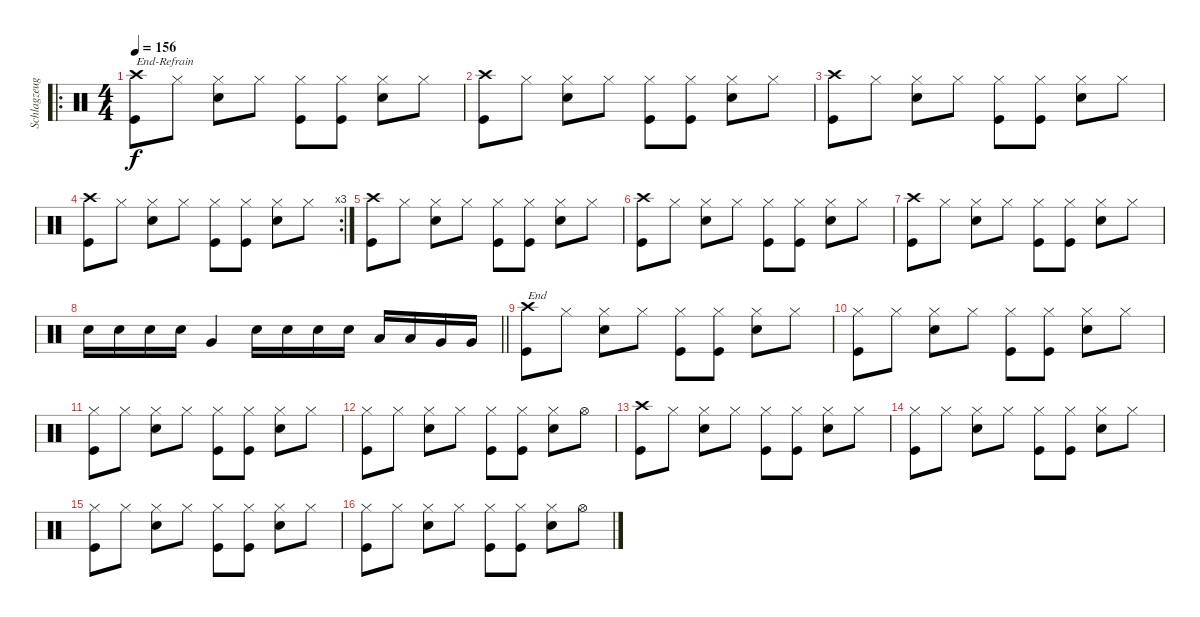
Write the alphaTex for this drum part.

\track ("Schlagzeug" "Schlagzeug") {instrument percussion}
\staff {score}
\articulation defaults
\ro
\ts (4 4)
\tempo 156
\clef neutral
\ks c
("Crash high (hit)" "Kick (hit)").8{txt "End-Refrain" dy f} "Hi-Hat (closed)".8 ("Hi-Hat (closed)" "Electric Snare (hit)").8 "Hi-Hat (closed)".8 ("Hi-Hat (closed)" "Kick (hit)").8 ("Hi-Hat (closed)" "Kick (hit)").8 ("Hi-Hat (closed)" "Electric Snare (hit)").8 "Hi-Hat (closed)".8 |
("Crash high (hit)" "Kick (hit)").8 "Hi-Hat (closed)".8 ("Hi-Hat (closed)" "Electric Snare (hit)").8 "Hi-Hat (closed)".8 ("Hi-Hat (closed)" "Kick (hit)").8 ("Hi-Hat (closed)" "Kick (hit)").8 ("Hi-Hat (closed)" "Electric Snare (hit)").8 "Hi-Hat (closed)".8 |
("Crash high (hit)" "Kick (hit)").8 "Hi-Hat (closed)".8 ("Hi-Hat (closed)" "Electric Snare (hit)").8 "Hi-Hat (closed)".8 ("Hi-Hat (closed)" "Kick (hit)").8 ("Hi-Hat (closed)" "Kick (hit)").8 ("Hi-Hat (closed)" "Electric Snare (hit)").8 "Hi-Hat (closed)".8 |
\rc 3
("Crash high (hit)" "Kick (hit)").8 "Hi-Hat (closed)".8 ("Hi-Hat (closed)" "Electric Snare (hit)").8 "Hi-Hat (closed)".8 ("Hi-Hat (closed)" "Kick (hit)").8 ("Hi-Hat (closed)" "Kick (hit)").8 ("Hi-Hat (closed)" "Electric Snare (hit)").8 "Hi-Hat (closed)".8 |
("Crash high (hit)" "Kick (hit)").8 "Hi-Hat (closed)".8 ("Hi-Hat (closed)" "Electric Snare (hit)").8 "Hi-Hat (closed)".8 ("Hi-Hat (closed)" "Kick (hit)").8 ("Hi-Hat (closed)" "Kick (hit)").8 ("Hi-Hat (closed)" "Electric Snare (hit)").8 "Hi-Hat (closed)".8 |
("Crash high (hit)" "Kick (hit)").8 "Hi-Hat (closed)".8 ("Hi-Hat (closed)" "Electric Snare (hit)").8 "Hi-Hat (closed)".8 ("Hi-Hat (closed)" "Kick (hit)").8 ("Hi-Hat (closed)" "Kick (hit)").8 ("Hi-Hat (closed)" "Electric Snare (hit)").8 "Hi-Hat (closed)".8 |
("Crash high (hit)" "Kick (hit)").8 "Hi-Hat (closed)".8 ("Hi-Hat (closed)" "Electric Snare (hit)").8 "Hi-Hat (closed)".8 ("Hi-Hat (closed)" "Kick (hit)").8 ("Hi-Hat (closed)" "Kick (hit)").8 ("Hi-Hat (closed)" "Electric Snare (hit)").8 "Hi-Hat (closed)".8 |
\barLineRight lightlight "Electric Snare (hit)".16 "Electric Snare (hit)".16 "Electric Snare (hit)".16 "Electric Snare (hit)".16 "Very Low Tom (hit)".4 "Electric Snare (hit)".16 "Electric Snare (hit)".16 "Electric Snare (hit)".16 "Electric Snare (hit)".16 "Low Tom (hit)".16 "Low Tom (hit)".16 "Very Low Tom (hit)".16 "Very Low Tom (hit)".16
|
("Crash high (hit)" "Kick (hit)").8{txt "End"} "Hi-Hat (closed)".8 ("Hi-Hat (closed)" "Electric Snare (hit)").8 "Hi-Hat (closed)".8 ("Hi-Hat (closed)" "Kick (hit)").8 ("Hi-Hat (closed)" "Kick (hit)").8 ("Hi-Hat (closed)" "Electric Snare (hit)").8 "Hi-Hat (closed)".8 |
("Hi-Hat (closed)" "Kick (hit)").8 "Hi-Hat (closed)".8 ("Hi-Hat (closed)" "Electric Snare (hit)").8 "Hi-Hat (closed)".8 ("Hi-Hat (closed)" "Kick (hit)").8 ("Hi-Hat (closed)" "Kick (hit)").8 ("Hi-Hat (closed)" "Electric Snare (hit)").8 "Hi-Hat (closed)".8 |
("Hi-Hat (closed)" "Kick (hit)").8 "Hi-Hat (closed)".8 ("Hi-Hat (closed)" "Electric Snare (hit)").8 "Hi-Hat (closed)".8 ("Hi-Hat (closed)" "Kick (hit)").8 ("Hi-Hat (closed)" "Kick (hit)").8 ("Hi-Hat (closed)" "Electric Snare (hit)").8 "Hi-Hat (closed)".8 |
("Hi-Hat (closed)" "Kick (hit)").8 "Hi-Hat (closed)".8 ("Hi-Hat (closed)" "Electric Snare (hit)").8 "Hi-Hat (closed)".8 ("Hi-Hat (closed)" "Kick (hit)").8 ("Hi-Hat (closed)" "Kick (hit)").8 ("Hi-Hat (closed)" "Electric Snare (hit)").8 "Hi-Hat (open)".8 |
("Crash high (hit)" "Kick (hit)").8 "Hi-Hat (closed)".8 ("Hi-Hat (closed)" "Electric Snare (hit)").8 "Hi-Hat (closed)".8 ("Hi-Hat (closed)" "Kick (hit)").8 ("Hi-Hat (closed)" "Kick (hit)").8 ("Hi-Hat (closed)" "Electric Snare (hit)").8 "Hi-Hat (closed)".8 |
("Hi-Hat (closed)" "Kick (hit)").8 "Hi-Hat (closed)".8 ("Hi-Hat (closed)" "Electric Snare (hit)").8 "Hi-Hat (closed)".8 ("Hi-Hat (closed)" "Kick (hit)").8 ("Hi-Hat (closed)" "Kick (hit)").8 ("Hi-Hat (closed)" "Electric Snare (hit)").8 "Hi-Hat (closed)".8 |
("Hi-Hat (closed)" "Kick (hit)").8 "Hi-Hat (closed)".8 ("Hi-Hat (closed)" "Electric Snare (hit)").8 "Hi-Hat (closed)".8 ("Hi-Hat (closed)" "Kick (hit)").8 ("Hi-Hat (closed)" "Kick (hit)").8 ("Hi-Hat (closed)" "Electric Snare (hit)").8 "Hi-Hat (closed)".8 |
("Hi-Hat (closed)" "Kick (hit)").8 "Hi-Hat (closed)".8 ("Hi-Hat (closed)" "Electric Snare (hit)").8 "Hi-Hat (closed)".8 ("Hi-Hat (closed)" "Kick (hit)").8 ("Hi-Hat (closed)" "Kick (hit)").8 ("Hi-Hat (closed)" "Electric Snare (hit)").8 "Hi-Hat (open)".8
